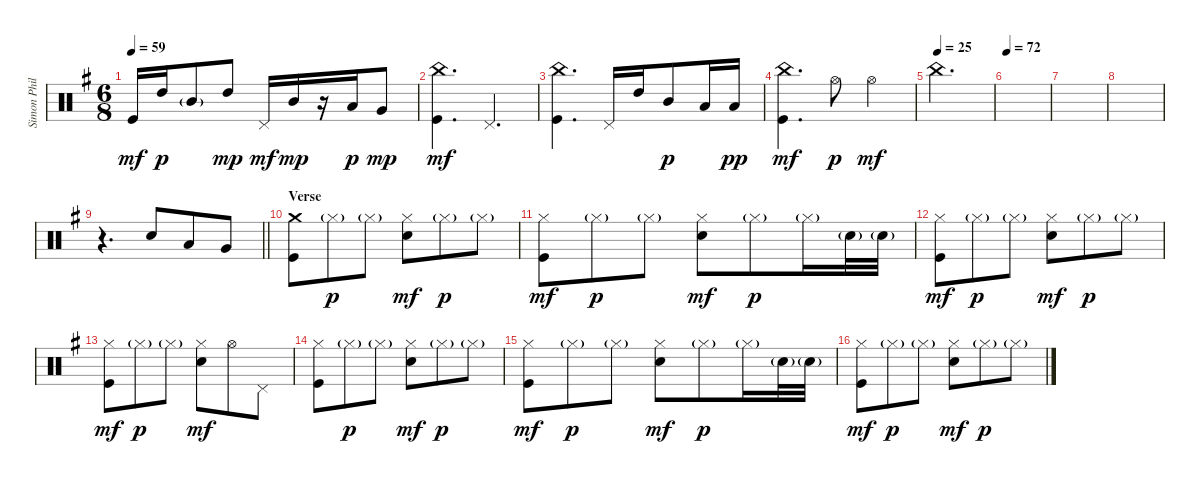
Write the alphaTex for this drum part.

\track ("Simon Phillips" "Simon Phil") {instrument percussion}
\staff {score}
\articulation defaults
\ts (6 8)
\tempo 59
\clef neutral
\ks eminor "Kick (hit)".16{dy mf} "High Tom (hit)".16{dy p} "Mid Tom (hit)"{g}.8 "High Tom (hit)".8{dy mp} "Pedal Hi-Hat (hit)".16{dy mf} "Mid Tom (hit)".16{dy mp}
r.16 "Low Tom (hit)".16{dy p} "Very Low Tom (hit)".8{dy mp} |
("China (hit)" "Kick (hit)").4{d dy mf} "Pedal Hi-Hat (hit)".4{d} |
("China (hit)" "Kick (hit)").4{d} "Pedal Hi-Hat (hit)".16 "High Tom (hit)".16 "Mid Tom (hit)".8{dy p} "Low Tom (hit)".16 "Low Floor Tom (hit)".16{dy pp} |
("China (hit)" "Kick (hit)").4{d dy mf} "Hi-Hat (open)".8{dy p} "Hi-Hat (open)".4{dy mf} |
\tempo (25)
"China (hit)".2{d} |
\tempo 72
|
|
|
\barLineRight lightlight
r.4{d} "Electric Snare (hit)".8 "Low Tom (hit)".8 "Very Low Tom (hit)".8 |
\section ("" "Verse")
("Crash medium (hit)" "Kick (hit)").8 "Hi-Hat (closed)"{g}.8{dy p} "Hi-Hat (closed)"{g}.8 ("Hi-Hat (closed)" "Electric Snare (hit)").8{dy mf} "Hi-Hat (closed)"{g}.8{dy p} "Hi-Hat (closed)"{g}.8 |
("Hi-Hat (closed)" "Kick (hit)").8{dy mf} "Hi-Hat (closed)"{g}.8{dy p} "Hi-Hat (closed)"{g}.8 ("Hi-Hat (closed)" "Electric Snare (hit)").8{dy mf} "Hi-Hat (closed)"{g}.8{dy p} "Hi-Hat (closed)"{g}.16 "Electric Snare (hit)"{g}.32 "Electric Snare (hit)"{g}.32 |
("Hi-Hat (closed)" "Kick (hit)").8{dy mf} "Hi-Hat (closed)"{g}.8{dy p} "Hi-Hat (closed)"{g}.8 ("Hi-Hat (closed)" "Electric Snare (hit)").8{dy mf} "Hi-Hat (closed)"{g}.8{dy p} "Hi-Hat (closed)"{g}.8 |
("Hi-Hat (closed)" "Kick (hit)").8{dy mf} "Hi-Hat (closed)"{g}.8{dy p} "Hi-Hat (closed)"{g}.8 ("Hi-Hat (closed)" "Electric Snare (hit)").8{dy mf} "Hi-Hat (open)".8 "Pedal Hi-Hat (hit)".8 |
("Hi-Hat (closed)" "Kick (hit)").8 "Hi-Hat (closed)"{g}.8{dy p} "Hi-Hat (closed)"{g}.8 ("Hi-Hat (closed)" "Electric Snare (hit)").8{dy mf} "Hi-Hat (closed)"{g}.8{dy p} "Hi-Hat (closed)"{g}.8 |
("Hi-Hat (closed)" "Kick (hit)").8{dy mf} "Hi-Hat (closed)"{g}.8{dy p} "Hi-Hat (closed)"{g}.8 ("Hi-Hat (closed)" "Electric Snare (hit)").8{dy mf} "Hi-Hat (closed)"{g}.8{dy p} "Hi-Hat (closed)"{g}.16 "Electric Snare (hit)"{g}.32 "Electric Snare (hit)"{g}.32 |
("Hi-Hat (closed)" "Kick (hit)").8{dy mf} "Hi-Hat (closed)"{g}.8{dy p} "Hi-Hat (closed)"{g}.8 ("Hi-Hat (closed)" "Electric Snare (hit)").8{dy mf} "Hi-Hat (closed)"{g}.8{dy p} "Hi-Hat (closed)"{g}.8
